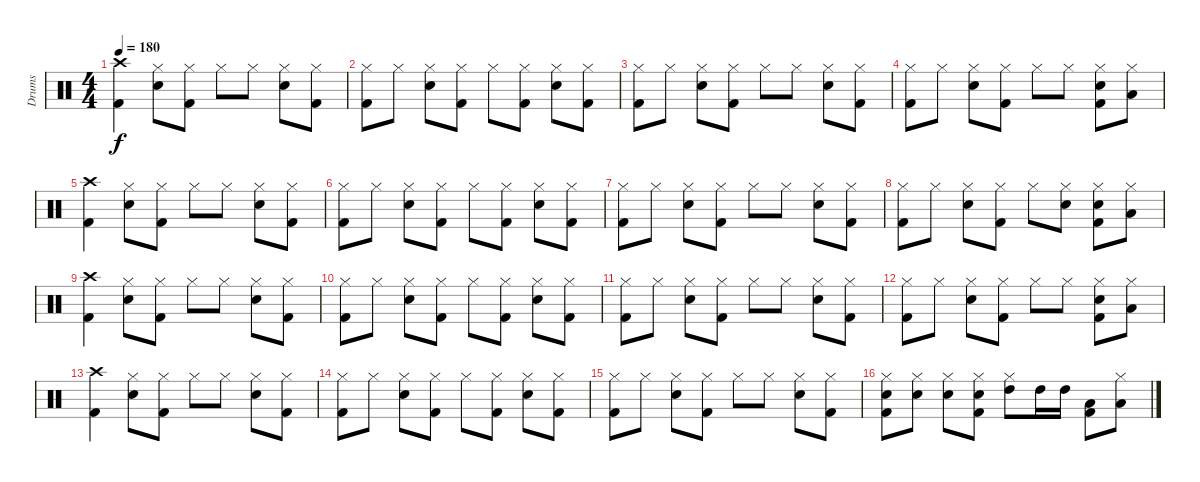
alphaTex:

\track ("Drums" "Drums") {instrument percussion}
\staff {score}
\articulation defaults
\ts (4 4)
\tempo 180
\clef neutral
\ks c
("Crash high (hit)" "Kick (hit) 2").4{dy f} ("Hi-Hat (closed)" "Electric Snare (hit)").8 ("Hi-Hat (closed)" "Kick (hit) 2").8 "Hi-Hat (closed)".8 "Hi-Hat (closed)".8 ("Hi-Hat (closed)" "Electric Snare (hit)").8 ("Hi-Hat (closed)" "Kick (hit) 2").8 |
("Hi-Hat (closed)" "Kick (hit) 2").8 "Hi-Hat (closed)".8 ("Hi-Hat (closed)" "Electric Snare (hit)").8 ("Hi-Hat (closed)" "Kick (hit) 2").8 "Hi-Hat (closed)".8 ("Hi-Hat (closed)" "Kick (hit) 2").8 ("Hi-Hat (closed)" "Electric Snare (hit)").8 ("Hi-Hat (closed)" "Kick (hit) 2").8 |
("Hi-Hat (closed)" "Kick (hit) 2").8 "Hi-Hat (closed)".8 ("Hi-Hat (closed)" "Electric Snare (hit)").8 ("Hi-Hat (closed)" "Kick (hit) 2").8 "Hi-Hat (closed)".8 "Hi-Hat (closed)".8 ("Hi-Hat (closed)" "Electric Snare (hit)").8 ("Hi-Hat (closed)" "Kick (hit) 2").8 |
("Hi-Hat (closed)" "Kick (hit) 2").8 "Hi-Hat (closed)".8 ("Hi-Hat (closed)" "Electric Snare (hit)").8 ("Hi-Hat (closed)" "Kick (hit) 2").8 "Hi-Hat (closed)".8 "Hi-Hat (closed)".8 ("Hi-Hat (closed)" "Electric Snare (hit)" "Kick (hit) 2").8 ("Hi-Hat (closed)" "Low Floor Tom (hit)").8 |
("Crash high (hit)" "Kick (hit) 2").4 ("Hi-Hat (closed)" "Electric Snare (hit)").8 ("Hi-Hat (closed)" "Kick (hit) 2").8 "Hi-Hat (closed)".8 "Hi-Hat (closed)".8 ("Hi-Hat (closed)" "Electric Snare (hit)").8 ("Hi-Hat (closed)" "Kick (hit) 2").8 |
("Hi-Hat (closed)" "Kick (hit) 2").8 "Hi-Hat (closed)".8 ("Hi-Hat (closed)" "Electric Snare (hit)").8 ("Hi-Hat (closed)" "Kick (hit) 2").8 "Hi-Hat (closed)".8 ("Hi-Hat (closed)" "Kick (hit) 2").8 ("Hi-Hat (closed)" "Electric Snare (hit)").8 ("Hi-Hat (closed)" "Kick (hit) 2").8 |
("Hi-Hat (closed)" "Kick (hit) 2").8 "Hi-Hat (closed)".8 ("Hi-Hat (closed)" "Electric Snare (hit)").8 ("Hi-Hat (closed)" "Kick (hit) 2").8 "Hi-Hat (closed)".8 "Hi-Hat (closed)".8 ("Hi-Hat (closed)" "Electric Snare (hit)").8 ("Hi-Hat (closed)" "Kick (hit) 2").8 |
("Hi-Hat (closed)" "Kick (hit) 2").8 "Hi-Hat (closed)".8 ("Hi-Hat (closed)" "Electric Snare (hit)").8 ("Hi-Hat (closed)" "Kick (hit) 2").8 "Hi-Hat (closed)".8 ("Hi-Hat (closed)" "Electric Snare (hit)").8 ("Hi-Hat (closed)" "Electric Snare (hit)" "Kick (hit) 2").8 ("Hi-Hat (closed)" "Low Floor Tom (hit)").8 |
("Crash high (hit)" "Kick (hit) 2").4 ("Hi-Hat (closed)" "Electric Snare (hit)").8 ("Hi-Hat (closed)" "Kick (hit) 2").8 "Hi-Hat (closed)".8 "Hi-Hat (closed)".8 ("Hi-Hat (closed)" "Electric Snare (hit)").8 ("Hi-Hat (closed)" "Kick (hit) 2").8 |
("Hi-Hat (closed)" "Kick (hit) 2").8 "Hi-Hat (closed)".8 ("Hi-Hat (closed)" "Electric Snare (hit)").8 ("Hi-Hat (closed)" "Kick (hit) 2").8 "Hi-Hat (closed)".8 ("Hi-Hat (closed)" "Kick (hit) 2").8 ("Hi-Hat (closed)" "Electric Snare (hit)").8 ("Hi-Hat (closed)" "Kick (hit) 2").8 |
("Hi-Hat (closed)" "Kick (hit) 2").8 "Hi-Hat (closed)".8 ("Hi-Hat (closed)" "Electric Snare (hit)").8 ("Hi-Hat (closed)" "Kick (hit) 2").8 "Hi-Hat (closed)".8 "Hi-Hat (closed)".8 ("Hi-Hat (closed)" "Electric Snare (hit)").8 ("Hi-Hat (closed)" "Kick (hit) 2").8 |
("Hi-Hat (closed)" "Kick (hit) 2").8 "Hi-Hat (closed)".8 ("Hi-Hat (closed)" "Electric Snare (hit)").8 ("Hi-Hat (closed)" "Kick (hit) 2").8 "Hi-Hat (closed)".8 "Hi-Hat (closed)".8 ("Hi-Hat (closed)" "Electric Snare (hit)" "Kick (hit) 2").8 ("Hi-Hat (closed)" "Low Floor Tom (hit)").8 |
("Crash high (hit)" "Kick (hit) 2").4 ("Hi-Hat (closed)" "Electric Snare (hit)").8 ("Hi-Hat (closed)" "Kick (hit) 2").8 "Hi-Hat (closed)".8 "Hi-Hat (closed)".8 ("Hi-Hat (closed)" "Electric Snare (hit)").8 ("Hi-Hat (closed)" "Kick (hit) 2").8 |
("Hi-Hat (closed)" "Kick (hit) 2").8 "Hi-Hat (closed)".8 ("Hi-Hat (closed)" "Electric Snare (hit)").8 ("Hi-Hat (closed)" "Kick (hit) 2").8 "Hi-Hat (closed)".8 ("Hi-Hat (closed)" "Kick (hit) 2").8 ("Hi-Hat (closed)" "Electric Snare (hit)").8 ("Hi-Hat (closed)" "Kick (hit) 2").8 |
("Hi-Hat (closed)" "Kick (hit) 2").8 "Hi-Hat (closed)".8 ("Hi-Hat (closed)" "Electric Snare (hit)").8 ("Hi-Hat (closed)" "Kick (hit) 2").8 "Hi-Hat (closed)".8 "Hi-Hat (closed)".8 ("Hi-Hat (closed)" "Electric Snare (hit)").8 ("Hi-Hat (closed)" "Kick (hit) 2").8 |
("Hi-Hat (closed)" "Electric Snare (hit)" "Kick (hit) 2").8 ("Hi-Hat (closed)" "Electric Snare (hit)").8 ("Hi-Hat (closed)" "Electric Snare (hit)").8 ("Hi-Hat (closed)" "Electric Snare (hit)" "Kick (hit) 2").8 ("Hi-Hat (closed)" "High Tom (hit)").8 "High Tom (hit)".16 "High Tom (hit)".16 ("Low Tom (hit)" "Kick (hit) 2").8 ("Hi-Hat (closed)" "Low Floor Tom (hit)").8
